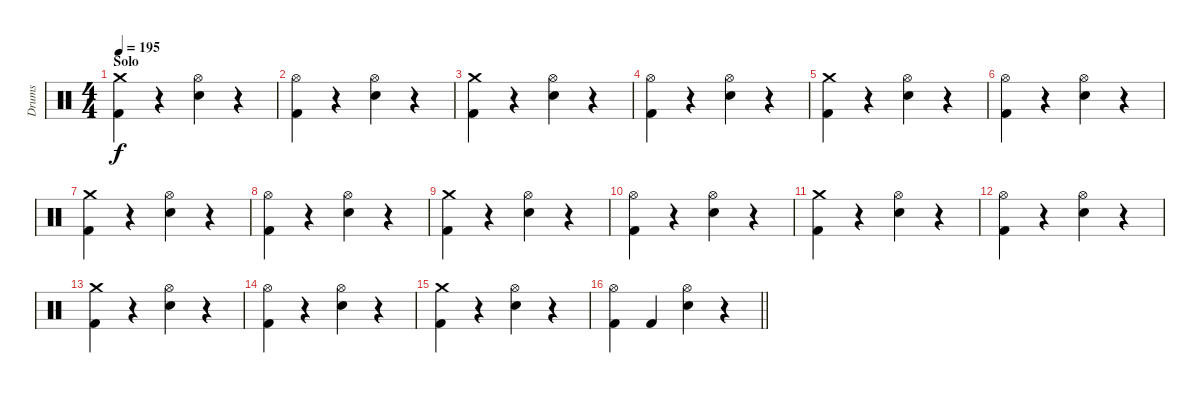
\track ("Drums" "Drums") {instrument percussion}
\staff {score}
\articulation defaults
\ts (4 4)
\section ("" "Solo")
\tempo 195
\clef neutral
\ks c
("Crash medium (hit)" "Kick (hit) 2").4{dy f} r.4 ("Hi-Hat (open)" "Electric Snare (hit)").4 r.4 |
("Hi-Hat (open)" "Kick (hit) 2").4 r.4 ("Hi-Hat (open)" "Electric Snare (hit)").4 r.4 |
("Crash medium (hit)" "Kick (hit) 2").4 r.4 ("Hi-Hat (open)" "Electric Snare (hit)").4 r.4 |
("Hi-Hat (open)" "Kick (hit) 2").4 r.4 ("Hi-Hat (open)" "Electric Snare (hit)").4 r.4 |
("Crash medium (hit)" "Kick (hit) 2").4 r.4 ("Hi-Hat (open)" "Electric Snare (hit)").4 r.4 |
("Hi-Hat (open)" "Kick (hit) 2").4 r.4 ("Hi-Hat (open)" "Electric Snare (hit)").4 r.4 |
("Crash medium (hit)" "Kick (hit) 2").4 r.4 ("Hi-Hat (open)" "Electric Snare (hit)").4 r.4 |
("Hi-Hat (open)" "Kick (hit) 2").4 r.4 ("Hi-Hat (open)" "Electric Snare (hit)").4 r.4 |
("Crash medium (hit)" "Kick (hit) 2").4 r.4 ("Hi-Hat (open)" "Electric Snare (hit)").4 r.4 |
("Hi-Hat (open)" "Kick (hit) 2").4 r.4 ("Hi-Hat (open)" "Electric Snare (hit)").4 r.4 |
("Crash medium (hit)" "Kick (hit) 2").4 r.4 ("Hi-Hat (open)" "Electric Snare (hit)").4 r.4 |
("Hi-Hat (open)" "Kick (hit) 2").4 r.4 ("Hi-Hat (open)" "Electric Snare (hit)").4 r.4 |
("Crash medium (hit)" "Kick (hit) 2").4 r.4 ("Hi-Hat (open)" "Electric Snare (hit)").4 r.4 |
("Hi-Hat (open)" "Kick (hit) 2").4 r.4 ("Hi-Hat (open)" "Electric Snare (hit)").4 r.4 |
("Crash medium (hit)" "Kick (hit) 2").4 r.4 ("Hi-Hat (open)" "Electric Snare (hit)").4 r.4 |
\barLineRight lightlight
("Hi-Hat (open)" "Kick (hit) 2").4 "Kick (hit) 2".4 ("Hi-Hat (open)" "Electric Snare (hit)").4 r.4
